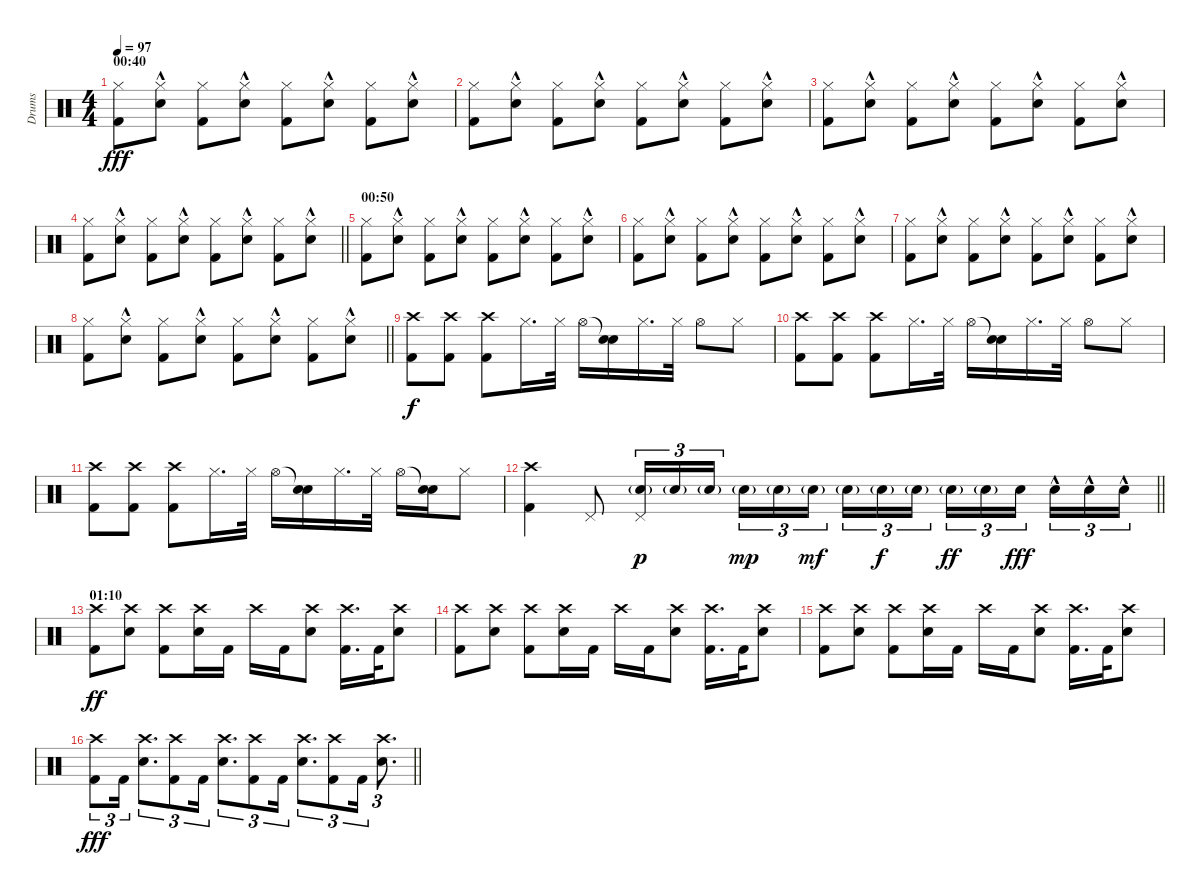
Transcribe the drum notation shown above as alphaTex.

\track ("Drums" "Drums") {instrument percussion}
\staff {score}
\articulation defaults
\ts (4 4)
\section ("" "00:40")
\tempo 97
\clef neutral
\ks c
("Hi-Hat (closed)" "Kick (hit) 2").8{dy fff} ("Hi-Hat (closed)" "Electric Snare (hit)"{hac}).8 ("Hi-Hat (closed)" "Kick (hit) 2").8 ("Hi-Hat (closed)" "Electric Snare (hit)"{hac}).8 ("Hi-Hat (closed)" "Kick (hit) 2").8 ("Hi-Hat (closed)" "Electric Snare (hit)"{hac}).8 ("Hi-Hat (closed)" "Kick (hit) 2").8 ("Hi-Hat (closed)" "Electric Snare (hit)"{hac}).8 |
("Hi-Hat (closed)" "Kick (hit) 2").8 ("Hi-Hat (closed)" "Electric Snare (hit)"{hac}).8 ("Hi-Hat (closed)" "Kick (hit) 2").8 ("Hi-Hat (closed)" "Electric Snare (hit)"{hac}).8 ("Hi-Hat (closed)" "Kick (hit) 2").8 ("Hi-Hat (closed)" "Electric Snare (hit)"{hac}).8 ("Hi-Hat (closed)" "Kick (hit) 2").8 ("Hi-Hat (closed)" "Electric Snare (hit)"{hac}).8 |
("Hi-Hat (closed)" "Kick (hit) 2").8 ("Hi-Hat (closed)" "Electric Snare (hit)"{hac}).8 ("Hi-Hat (closed)" "Kick (hit) 2").8 ("Hi-Hat (closed)" "Electric Snare (hit)"{hac}).8 ("Hi-Hat (closed)" "Kick (hit) 2").8 ("Hi-Hat (closed)" "Electric Snare (hit)"{hac}).8 ("Hi-Hat (closed)" "Kick (hit) 2").8 ("Hi-Hat (closed)" "Electric Snare (hit)"{hac}).8 |
\barLineRight lightlight
("Hi-Hat (closed)" "Kick (hit) 2").8 ("Hi-Hat (closed)" "Electric Snare (hit)"{hac}).8 ("Hi-Hat (closed)" "Kick (hit) 2").8 ("Hi-Hat (closed)" "Electric Snare (hit)"{hac}).8 ("Hi-Hat (closed)" "Kick (hit) 2").8 ("Hi-Hat (closed)" "Electric Snare (hit)"{hac}).8 ("Hi-Hat (closed)" "Kick (hit) 2").8 ("Hi-Hat (closed)" "Electric Snare (hit)"{hac}).8 |
\section ("" "00:50")
("Hi-Hat (closed)" "Kick (hit) 2").8 ("Hi-Hat (closed)" "Electric Snare (hit)"{hac}).8 ("Hi-Hat (closed)" "Kick (hit) 2").8 ("Hi-Hat (closed)" "Electric Snare (hit)"{hac}).8 ("Hi-Hat (closed)" "Kick (hit) 2").8 ("Hi-Hat (closed)" "Electric Snare (hit)"{hac}).8 ("Hi-Hat (closed)" "Kick (hit) 2").8 ("Hi-Hat (closed)" "Electric Snare (hit)"{hac}).8 |
("Hi-Hat (closed)" "Kick (hit) 2").8 ("Hi-Hat (closed)" "Electric Snare (hit)"{hac}).8 ("Hi-Hat (closed)" "Kick (hit) 2").8 ("Hi-Hat (closed)" "Electric Snare (hit)"{hac}).8 ("Hi-Hat (closed)" "Kick (hit) 2").8 ("Hi-Hat (closed)" "Electric Snare (hit)"{hac}).8 ("Hi-Hat (closed)" "Kick (hit) 2").8 ("Hi-Hat (closed)" "Electric Snare (hit)"{hac}).8 |
("Hi-Hat (closed)" "Kick (hit) 2").8 ("Hi-Hat (closed)" "Electric Snare (hit)"{hac}).8 ("Hi-Hat (closed)" "Kick (hit) 2").8 ("Hi-Hat (closed)" "Electric Snare (hit)"{hac}).8 ("Hi-Hat (closed)" "Kick (hit) 2").8 ("Hi-Hat (closed)" "Electric Snare (hit)"{hac}).8 ("Hi-Hat (closed)" "Kick (hit) 2").8 ("Hi-Hat (closed)" "Electric Snare (hit)"{hac}).8 |
\barLineRight lightlight
("Hi-Hat (closed)" "Kick (hit) 2").8 ("Hi-Hat (closed)" "Electric Snare (hit)"{hac}).8 ("Hi-Hat (closed)" "Kick (hit) 2").8 ("Hi-Hat (closed)" "Electric Snare (hit)"{hac}).8 ("Hi-Hat (closed)" "Kick (hit) 2").8 ("Hi-Hat (closed)" "Electric Snare (hit)"{hac}).8 ("Hi-Hat (closed)" "Kick (hit) 2").8 ("Hi-Hat (closed)" "Electric Snare (hit)"{hac}).8 |
("Crash high (hit)" "Kick (hit) 2").8{dy f} ("Crash high (hit)" "Kick (hit) 2").8 ("Crash high (hit)" "Kick (hit) 2").8 "Hi-Hat (closed)".16{d} "Hi-Hat (closed)".32 "Hi-Hat (open)".16 ("Snare (hit)"{t} "Electric Snare (hit)").16 "Hi-Hat (closed)".16{d} "Hi-Hat (closed)".32 "Hi-Hat (open)".8 "Hi-Hat (closed)".8 |
("Crash high (hit)" "Kick (hit) 2").8 ("Crash high (hit)" "Kick (hit) 2").8 ("Crash high (hit)" "Kick (hit) 2").8 "Hi-Hat (closed)".16{d} "Hi-Hat (closed)".32 "Hi-Hat (open)".16 ("Snare (hit)"{t} "Electric Snare (hit)").16 "Hi-Hat (closed)".16{d} "Hi-Hat (closed)".32 "Hi-Hat (open)".8 "Hi-Hat (closed)".8 |
("Crash high (hit)" "Kick (hit) 2").8 ("Crash high (hit)" "Kick (hit) 2").8 ("Crash high (hit)" "Kick (hit) 2").8 "Hi-Hat (closed)".16{d} "Hi-Hat (closed)".32 "Hi-Hat (open)".16 ("Snare (hit)"{t} "Electric Snare (hit)").16 "Hi-Hat (closed)".16{d} "Hi-Hat (closed)".32 "Hi-Hat (open)".16 ("Snare (hit)"{t} "Electric Snare (hit)").16 "Hi-Hat (closed)".8 |
\barLineRight lightlight
("Crash high (hit)" "Kick (hit) 2").4 "Pedal Hi-Hat (hit)".8 ("Pedal Hi-Hat (hit)" "Electric Snare (hit)"{g}).16{tu (3 2) dy p} "Electric Snare (hit)"{g}.16{tu (3 2)} "Electric Snare (hit)"{g}.16{tu (3 2)} "Electric Snare (hit)"{g}.16{tu (3 2) dy mp} "Electric Snare (hit)"{g}.16{tu (3 2)} "Electric Snare (hit)"{g}.16{tu (3 2) dy mf beam splitsecondary} "Electric Snare (hit)"{g}.16{tu (3 2)} "Electric Snare (hit)"{g}.16{tu (3 2) dy f} "Electric Snare (hit)"{g}.16{tu (3 2)} "Electric Snare (hit)"{g}.16{tu (3 2) dy ff} "Electric Snare (hit)"{g}.16{tu (3 2)} "Electric Snare (hit)".16{tu (3 2) dy fff beam splitsecondary} "Electric Snare (hit)"{hac}.16{tu (3 2)} "Electric Snare (hit)"{hac}.16{tu (3 2)} "Electric Snare (hit)"{hac}.16{tu (3 2)} |
\section ("" "01:10")
("Crash high (hit)" "Kick (hit) 2").8{dy ff} ("Crash high (hit)" "Electric Snare (hit)").8 ("Crash high (hit)" "Kick (hit) 2").8 ("Crash high (hit)" "Electric Snare (hit)").16 "Kick (hit) 2".16 "Crash high (hit)".16 "Kick (hit) 2".16 ("Crash high (hit)" "Electric Snare (hit)").8 ("Crash high (hit)" "Kick (hit) 2").16{d} "Kick (hit) 2".32 ("Crash high (hit)" "Electric Snare (hit)").8 |
("Crash high (hit)" "Kick (hit) 2").8 ("Crash high (hit)" "Electric Snare (hit)").8 ("Crash high (hit)" "Kick (hit) 2").8 ("Crash high (hit)" "Electric Snare (hit)").16 "Kick (hit) 2".16 "Crash high (hit)".16 "Kick (hit) 2".16 ("Crash high (hit)" "Electric Snare (hit)").8 ("Crash high (hit)" "Kick (hit) 2").16{d} "Kick (hit) 2".32 ("Crash high (hit)" "Electric Snare (hit)").8 |
("Crash high (hit)" "Kick (hit) 2").8 ("Crash high (hit)" "Electric Snare (hit)").8 ("Crash high (hit)" "Kick (hit) 2").8 ("Crash high (hit)" "Electric Snare (hit)").16 "Kick (hit) 2".16 "Crash high (hit)".16 "Kick (hit) 2".16 ("Crash high (hit)" "Electric Snare (hit)").8 ("Crash high (hit)" "Kick (hit) 2").16{d} "Kick (hit) 2".32 ("Crash high (hit)" "Electric Snare (hit)").8 |
\barLineRight lightlight
("Crash high (hit)" "Kick (hit) 2").8{tu (3 2) dy fff} "Kick (hit) 2".16{tu (3 2)} ("Crash high (hit)" "Electric Snare (hit)").8{d tu (3 2)} ("Crash high (hit)" "Kick (hit) 2").8{tu (3 2)} "Kick (hit) 2".16{tu (3 2)} ("Crash high (hit)" "Electric Snare (hit)").8{d tu (3 2)} ("Crash high (hit)" "Kick (hit) 2").8{tu (3 2)} "Kick (hit) 2".16{tu (3 2)} ("Crash high (hit)" "Electric Snare (hit)").8{d tu (3 2)} ("Crash high (hit)" "Kick (hit) 2").8{tu (3 2)} "Kick (hit) 2".16{tu (3 2)} ("Crash high (hit)" "Electric Snare (hit)").8{d tu (3 2)}
